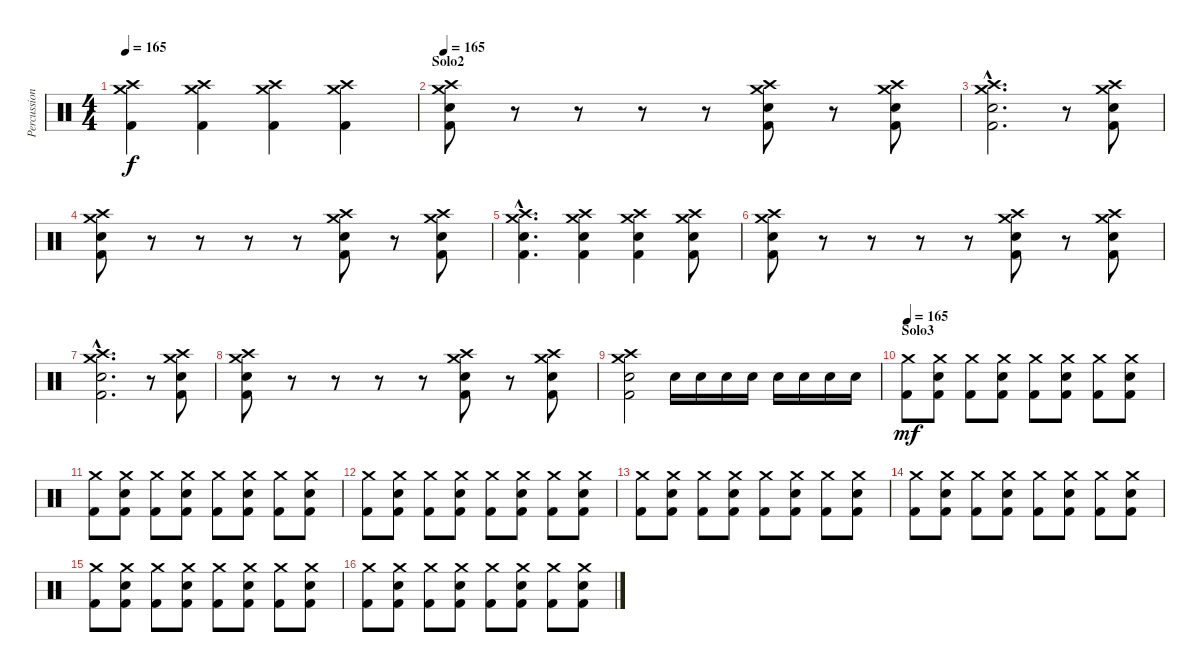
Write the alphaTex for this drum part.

\track ("Percussion" "Percussion") {instrument percussion}
\staff {score}
\articulation defaults
\ts (4 4)
\tempo 165
\clef neutral
\ks c
("Crash medium (hit)" "Crash high (hit)" "Kick (hit) 2").4{dy f} ("Crash medium (hit)" "Crash high (hit)" "Kick (hit) 2").4 ("Crash medium (hit)" "Crash high (hit)" "Kick (hit) 2").4 ("Crash medium (hit)" "Crash high (hit)" "Kick (hit) 2").4 |
\section ("" "Solo2")
\tempo 165
("Crash medium (hit)" "Crash high (hit)" "Snare (hit) 2" "Kick (hit) 2").8 r.8 r.8 r.8 r.8 ("Crash medium (hit)" "Crash high (hit)" "Snare (hit) 2" "Kick (hit) 2").8 r.8 ("Crash medium (hit)" "Crash high (hit)" "Snare (hit) 2" "Kick (hit) 2").8 |
("Crash medium (hit)"{hac} "Crash high (hit)"{hac} "Snare (hit) 2"{hac} "Kick (hit) 2"{hac}).2{d} r.8 ("Crash medium (hit)" "Crash high (hit)" "Snare (hit) 2" "Kick (hit) 2").8 |
("Crash medium (hit)" "Crash high (hit)" "Snare (hit) 2" "Kick (hit) 2").8 r.8 r.8 r.8 r.8 ("Crash medium (hit)" "Crash high (hit)" "Snare (hit) 2" "Kick (hit) 2").8 r.8 ("Crash medium (hit)" "Crash high (hit)" "Snare (hit) 2" "Kick (hit) 2").8 |
("Crash medium (hit)"{hac} "Crash high (hit)"{hac} "Snare (hit) 2"{hac} "Kick (hit) 2"{hac}).4{d} ("Crash medium (hit)" "Crash high (hit)" "Snare (hit) 2" "Kick (hit) 2").4 ("Crash medium (hit)" "Crash high (hit)" "Snare (hit) 2" "Kick (hit) 2").4 ("Crash medium (hit)" "Crash high (hit)" "Snare (hit) 2" "Kick (hit) 2").8 |
("Crash medium (hit)" "Crash high (hit)" "Snare (hit) 2" "Kick (hit) 2").8 r.8 r.8 r.8 r.8 ("Crash medium (hit)" "Crash high (hit)" "Snare (hit) 2" "Kick (hit) 2").8 r.8 ("Crash medium (hit)" "Crash high (hit)" "Snare (hit) 2" "Kick (hit) 2").8 |
("Crash medium (hit)"{hac} "Crash high (hit)"{hac} "Snare (hit) 2"{hac} "Kick (hit) 2"{hac}).2{d} r.8 ("Crash medium (hit)" "Crash high (hit)" "Snare (hit) 2" "Kick (hit) 2").8 |
("Crash medium (hit)" "Crash high (hit)" "Snare (hit) 2" "Kick (hit) 2").8 r.8 r.8 r.8 r.8 ("Crash medium (hit)" "Crash high (hit)" "Snare (hit) 2" "Kick (hit) 2").8 r.8 ("Crash medium (hit)" "Crash high (hit)" "Snare (hit) 2" "Kick (hit) 2").8 |
("Crash medium (hit)" "Crash high (hit)" "Snare (hit) 2" "Kick (hit) 2").2 "Snare (hit) 2".16 "Snare (hit) 2".16 "Snare (hit) 2".16 "Snare (hit) 2".16 "Snare (hit) 2".16 "Snare (hit) 2".16 "Snare (hit) 2".16 "Snare (hit) 2".16 |
\section ("" "Solo3")
\tempo 165
("Crash medium (hit)" "Kick (hit) 2").8{dy mf} ("Crash medium (hit)" "Snare (hit) 2" "Kick (hit) 2").8 ("Crash medium (hit)" "Kick (hit) 2").8 ("Crash medium (hit)" "Snare (hit) 2" "Kick (hit) 2").8 ("Crash medium (hit)" "Kick (hit) 2").8 ("Crash medium (hit)" "Snare (hit) 2" "Kick (hit) 2").8 ("Crash medium (hit)" "Kick (hit) 2").8 ("Crash medium (hit)" "Snare (hit) 2" "Kick (hit) 2").8 |
("Crash medium (hit)" "Kick (hit) 2").8 ("Crash medium (hit)" "Snare (hit) 2" "Kick (hit) 2").8 ("Crash medium (hit)" "Kick (hit) 2").8 ("Crash medium (hit)" "Snare (hit) 2" "Kick (hit) 2").8 ("Crash medium (hit)" "Kick (hit) 2").8 ("Crash medium (hit)" "Snare (hit) 2" "Kick (hit) 2").8 ("Crash medium (hit)" "Kick (hit) 2").8 ("Crash medium (hit)" "Snare (hit) 2" "Kick (hit) 2").8 |
("Crash medium (hit)" "Kick (hit) 2").8 ("Crash medium (hit)" "Snare (hit) 2" "Kick (hit) 2").8 ("Crash medium (hit)" "Kick (hit) 2").8 ("Crash medium (hit)" "Snare (hit) 2" "Kick (hit) 2").8 ("Crash medium (hit)" "Kick (hit) 2").8 ("Crash medium (hit)" "Snare (hit) 2" "Kick (hit) 2").8 ("Crash medium (hit)" "Kick (hit) 2").8 ("Crash medium (hit)" "Snare (hit) 2" "Kick (hit) 2").8 |
("Crash medium (hit)" "Kick (hit) 2").8 ("Crash medium (hit)" "Snare (hit) 2" "Kick (hit) 2").8 ("Crash medium (hit)" "Kick (hit) 2").8 ("Crash medium (hit)" "Snare (hit) 2" "Kick (hit) 2").8 ("Crash medium (hit)" "Kick (hit) 2").8 ("Crash medium (hit)" "Snare (hit) 2" "Kick (hit) 2").8 ("Crash medium (hit)" "Kick (hit) 2").8 ("Crash medium (hit)" "Snare (hit) 2" "Kick (hit) 2").8 |
("Crash medium (hit)" "Kick (hit) 2").8 ("Crash medium (hit)" "Snare (hit) 2" "Kick (hit) 2").8 ("Crash medium (hit)" "Kick (hit) 2").8 ("Crash medium (hit)" "Snare (hit) 2" "Kick (hit) 2").8 ("Crash medium (hit)" "Kick (hit) 2").8 ("Crash medium (hit)" "Snare (hit) 2" "Kick (hit) 2").8 ("Crash medium (hit)" "Kick (hit) 2").8 ("Crash medium (hit)" "Snare (hit) 2" "Kick (hit) 2").8 |
("Crash medium (hit)" "Kick (hit) 2").8 ("Crash medium (hit)" "Snare (hit) 2" "Kick (hit) 2").8 ("Crash medium (hit)" "Kick (hit) 2").8 ("Crash medium (hit)" "Snare (hit) 2" "Kick (hit) 2").8 ("Crash medium (hit)" "Kick (hit) 2").8 ("Crash medium (hit)" "Snare (hit) 2" "Kick (hit) 2").8 ("Crash medium (hit)" "Kick (hit) 2").8 ("Crash medium (hit)" "Snare (hit) 2" "Kick (hit) 2").8 |
("Crash medium (hit)" "Kick (hit) 2").8 ("Crash medium (hit)" "Snare (hit) 2" "Kick (hit) 2").8 ("Crash medium (hit)" "Kick (hit) 2").8 ("Crash medium (hit)" "Snare (hit) 2" "Kick (hit) 2").8 ("Crash medium (hit)" "Kick (hit) 2").8 ("Crash medium (hit)" "Snare (hit) 2" "Kick (hit) 2").8 ("Crash medium (hit)" "Kick (hit) 2").8 ("Crash medium (hit)" "Snare (hit) 2" "Kick (hit) 2").8
